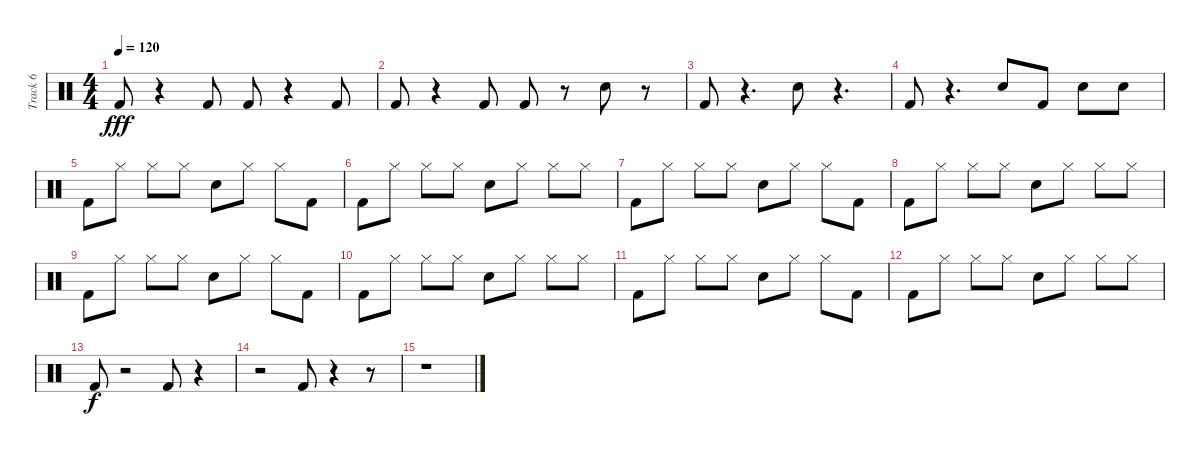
\track ("Track 6" "Track 6") {instrument percussion}
\staff {score}
\articulation defaults
\ts (4 4)
\tempo 120
\clef neutral
\ks c "Kick (hit) 2".8{dy fff}
r.4 "Kick (hit) 2".8 "Kick (hit) 2".8 r.4 "Kick (hit) 2".8 |
"Kick (hit) 2".8 r.4 "Kick (hit) 2".8 "Kick (hit) 2".8 r.8 "Snare (hit) 2".8 r.8 |
"Kick (hit) 2".8 r.4{d} "Snare (hit) 2".8 r.4{d} |
"Kick (hit) 2".8 r.4{d} "Snare (hit) 2".8 "Kick (hit) 2".8 "Snare (hit) 2".8 "Snare (hit) 2".8 |
"Kick (hit) 2".8 "Hi-Hat (closed)".8 "Hi-Hat (closed)".8 "Hi-Hat (closed)".8 "Snare (hit) 2".8 "Hi-Hat (closed)".8 "Hi-Hat (closed)".8 "Kick (hit) 2".8 |
"Kick (hit) 2".8 "Hi-Hat (closed)".8 "Hi-Hat (closed)".8 "Hi-Hat (closed)".8 "Snare (hit) 2".8 "Hi-Hat (closed)".8 "Hi-Hat (closed)".8 "Hi-Hat (closed)".8 |
"Kick (hit) 2".8 "Hi-Hat (closed)".8 "Hi-Hat (closed)".8 "Hi-Hat (closed)".8 "Snare (hit) 2".8 "Hi-Hat (closed)".8 "Hi-Hat (closed)".8 "Kick (hit) 2".8 |
"Kick (hit) 2".8 "Hi-Hat (closed)".8 "Hi-Hat (closed)".8 "Hi-Hat (closed)".8 "Snare (hit) 2".8 "Hi-Hat (closed)".8 "Hi-Hat (closed)".8 "Hi-Hat (closed)".8 |
"Kick (hit) 2".8 "Hi-Hat (closed)".8 "Hi-Hat (closed)".8 "Hi-Hat (closed)".8 "Snare (hit) 2".8 "Hi-Hat (closed)".8 "Hi-Hat (closed)".8 "Kick (hit) 2".8 |
"Kick (hit) 2".8 "Hi-Hat (closed)".8 "Hi-Hat (closed)".8 "Hi-Hat (closed)".8 "Snare (hit) 2".8 "Hi-Hat (closed)".8 "Hi-Hat (closed)".8 "Hi-Hat (closed)".8 |
"Kick (hit) 2".8 "Hi-Hat (closed)".8 "Hi-Hat (closed)".8 "Hi-Hat (closed)".8 "Snare (hit) 2".8 "Hi-Hat (closed)".8 "Hi-Hat (closed)".8 "Kick (hit) 2".8 |
"Kick (hit) 2".8 "Hi-Hat (closed)".8 "Hi-Hat (closed)".8 "Hi-Hat (closed)".8 "Snare (hit) 2".8 "Hi-Hat (closed)".8 "Hi-Hat (closed)".8 "Hi-Hat (closed)".8 |
"Kick (hit) 2".8{dy f} r.2 "Kick (hit) 2".8 r.4 |
r.2 "Kick (hit) 2".8 r.4 r.8 |
r.1
